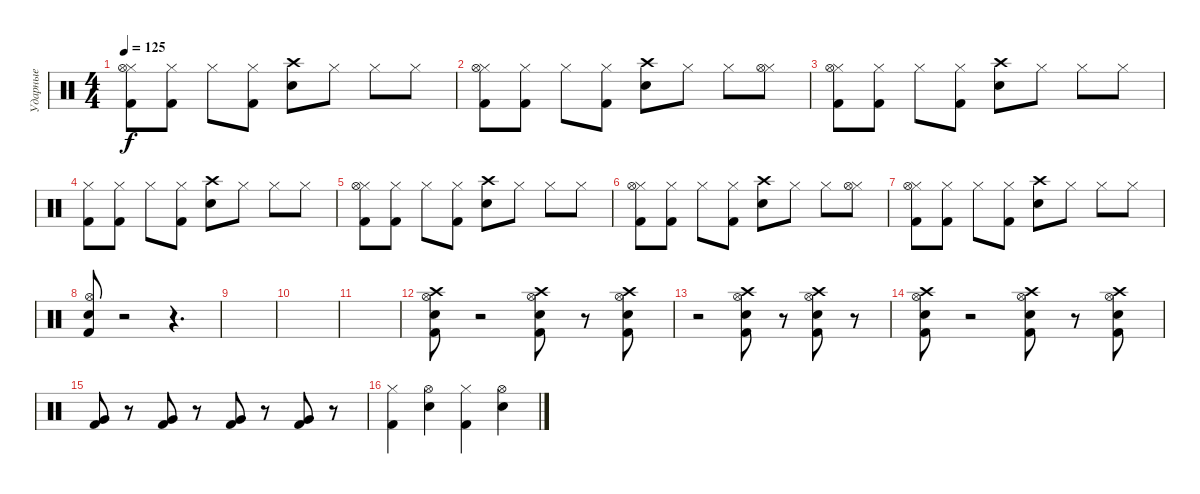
\track ("Ударные" "Ударные") {instrument percussion}
\staff {score}
\articulation defaults
\ts (4 4)
\tempo 125
\clef neutral
\ks c
("Kick (hit) 2" "Hi-Hat (closed)" "Hi-Hat (open)").8{dy f} ("Kick (hit) 2" "Hi-Hat (closed)").8 "Hi-Hat (closed)".8 ("Kick (hit) 2" "Hi-Hat (closed)").8 ("Electric Snare (hit)" "Crash high (hit)").8 "Hi-Hat (closed)".8 "Hi-Hat (closed)".8 "Hi-Hat (closed)".8 |
("Kick (hit) 2" "Hi-Hat (closed)" "Hi-Hat (open)").8 ("Kick (hit) 2" "Hi-Hat (closed)").8 "Hi-Hat (closed)".8 ("Kick (hit) 2" "Hi-Hat (closed)").8 ("Electric Snare (hit)" "Crash high (hit)").8 "Hi-Hat (closed)".8 "Hi-Hat (closed)".8 ("Hi-Hat (closed)" "Hi-Hat (open)").8 |
("Kick (hit) 2" "Hi-Hat (closed)" "Hi-Hat (open)").8 ("Kick (hit) 2" "Hi-Hat (closed)").8 "Hi-Hat (closed)".8 ("Kick (hit) 2" "Hi-Hat (closed)").8 ("Electric Snare (hit)" "Crash high (hit)").8 "Hi-Hat (closed)".8 "Hi-Hat (closed)".8 "Hi-Hat (closed)".8 |
("Kick (hit) 2" "Hi-Hat (closed)").8 ("Kick (hit) 2" "Hi-Hat (closed)").8 "Hi-Hat (closed)".8 ("Kick (hit) 2" "Hi-Hat (closed)").8 ("Electric Snare (hit)" "Crash high (hit)").8 "Hi-Hat (closed)".8 "Hi-Hat (closed)".8 "Hi-Hat (closed)".8 |
("Kick (hit) 2" "Hi-Hat (closed)" "Hi-Hat (open)").8 ("Kick (hit) 2" "Hi-Hat (closed)").8 "Hi-Hat (closed)".8 ("Kick (hit) 2" "Hi-Hat (closed)").8 ("Electric Snare (hit)" "Crash high (hit)").8 "Hi-Hat (closed)".8 "Hi-Hat (closed)".8 "Hi-Hat (closed)".8 |
("Kick (hit) 2" "Hi-Hat (closed)" "Hi-Hat (open)").8 ("Kick (hit) 2" "Hi-Hat (closed)").8 "Hi-Hat (closed)".8 ("Kick (hit) 2" "Hi-Hat (closed)").8 ("Electric Snare (hit)" "Crash high (hit)").8 "Hi-Hat (closed)".8 "Hi-Hat (closed)".8 ("Hi-Hat (closed)" "Hi-Hat (open)").8 |
("Kick (hit) 2" "Hi-Hat (closed)" "Hi-Hat (open)").8 ("Kick (hit) 2" "Hi-Hat (closed)").8 "Hi-Hat (closed)".8 ("Kick (hit) 2" "Hi-Hat (closed)").8 ("Electric Snare (hit)" "Crash high (hit)").8 "Hi-Hat (closed)".8 "Hi-Hat (closed)".8 "Hi-Hat (closed)".8 |
("Electric Snare (hit)" "Hi-Hat (open)" "Kick (hit) 2").8 r.2 r.4{d} |
|
|
|
("Electric Snare (hit)" "Hi-Hat (open)" "Crash high (hit)" "Kick (hit) 2").8 r.2 ("Electric Snare (hit)" "Hi-Hat (open)" "Crash high (hit)" "Kick (hit) 2").8 r.8 ("Electric Snare (hit)" "Hi-Hat (open)" "Crash high (hit)" "Kick (hit) 2").8 |
r.2 ("Electric Snare (hit)" "Hi-Hat (open)" "Crash high (hit)" "Kick (hit) 2").8 r.8 ("Electric Snare (hit)" "Hi-Hat (open)" "Crash high (hit)" "Kick (hit) 2").8 r.8 |
("Electric Snare (hit)" "Hi-Hat (open)" "Crash high (hit)" "Kick (hit) 2").8 r.2 ("Electric Snare (hit)" "Hi-Hat (open)" "Crash high (hit)" "Kick (hit) 2").8 r.8 ("Electric Snare (hit)" "Hi-Hat (open)" "Crash high (hit)" "Kick (hit) 2").8 |
("Very Low Tom (hit)" "Kick (hit) 2").8 r.8 ("Very Low Tom (hit)" "Kick (hit) 2").8 r.8 ("Very Low Tom (hit)" "Kick (hit) 2").8 r.8 ("Very Low Tom (hit)" "Kick (hit) 2").8 r.8 |
("Hi-Hat (closed)" "Kick (hit) 2").4 ("Hi-Hat (open)" "Electric Snare (hit)").4 ("Hi-Hat (closed)" "Kick (hit) 2").4 ("Hi-Hat (open)" "Electric Snare (hit)").4
